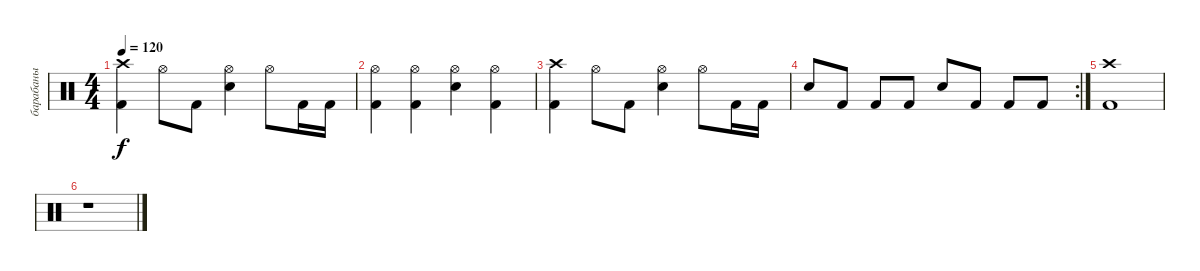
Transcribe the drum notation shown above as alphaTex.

\track ("барабаны" "барабаны") {instrument percussion}
\staff {score}
\articulation defaults
\ts (4 4)
\tempo 120
\clef neutral
\ks c
("Crash high (hit)" "Kick (hit) 2").4{dy f} "Hi-Hat (open)".8 "Kick (hit) 2".8 ("Hi-Hat (open)" "Snare (hit) 2").4 "Hi-Hat (open)".8 "Kick (hit) 2".16 "Kick (hit) 2".16 |
("Hi-Hat (open)" "Kick (hit) 2").4 ("Hi-Hat (open)" "Kick (hit) 2").4 ("Hi-Hat (open)" "Snare (hit) 2").4 ("Hi-Hat (open)" "Kick (hit) 2").4 |
("Crash high (hit)" "Kick (hit) 2").4 "Hi-Hat (open)".8 "Kick (hit) 2".8 ("Hi-Hat (open)" "Snare (hit) 2").4 "Hi-Hat (open)".8 "Kick (hit) 2".16 "Kick (hit) 2".16 |
\rc 2 "Snare (hit) 2".8 "Kick (hit) 2".8 "Kick (hit) 2".8 "Kick (hit) 2".8 "Snare (hit) 2".8 "Kick (hit) 2".8 "Kick (hit) 2".8 "Kick (hit) 2".8
|
("Crash high (hit)" "Kick (hit) 2").1 |
r.1
